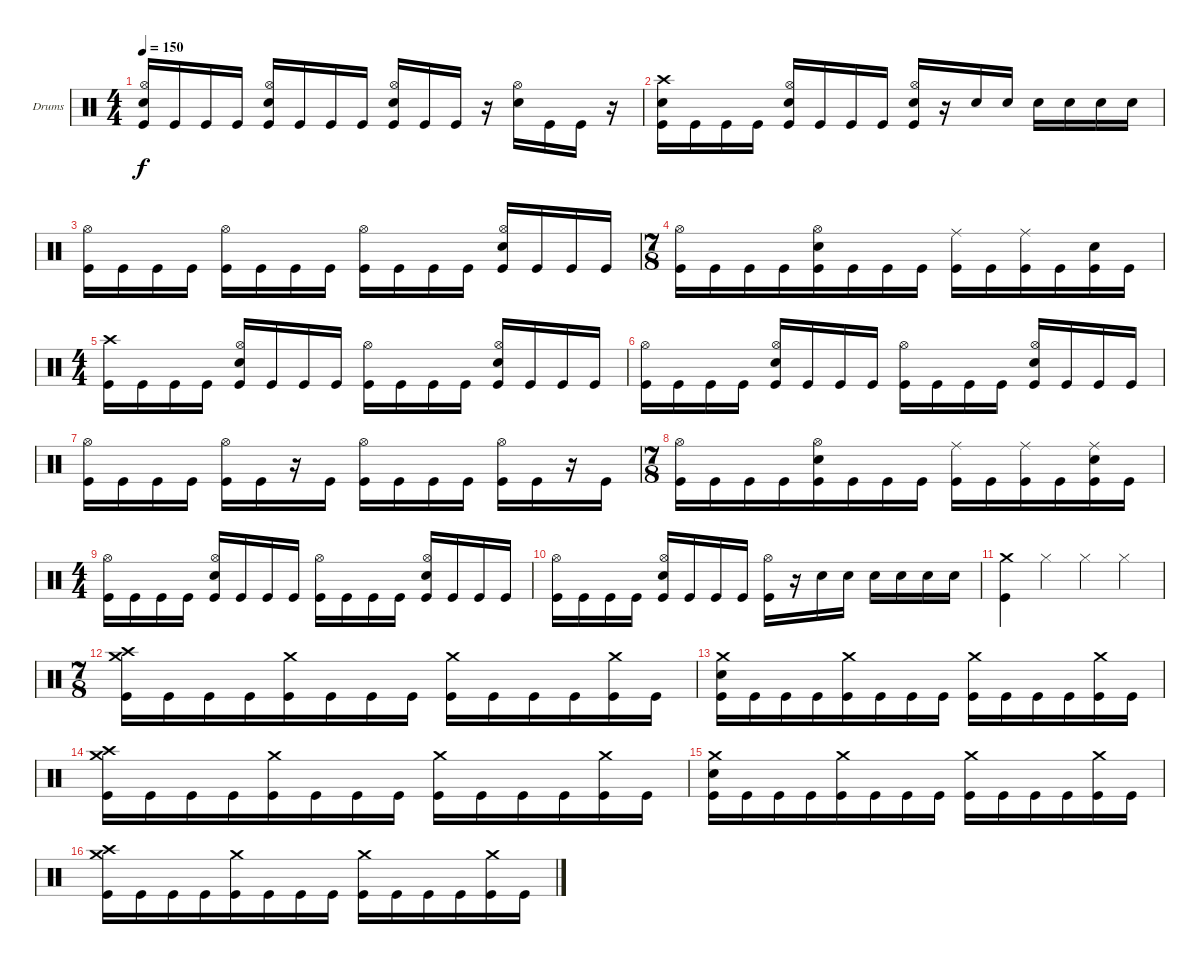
\defaultSystemsLayout 4
\bracketExtendMode groupsimilarinstruments
\firstSystemTrackNameOrientation horizontal
\otherSystemsTrackNameOrientation horizontal
\track ("Moe Carlson" "Drums") {instrument percussion}
\staff {score}
\articulation defaults
\ts (4 4)
\tempo 150
\clef neutral
\scale
0.474178
\ks c
("Kick (hit)" "Hi-Hat (open)" "Snare (hit) 2").16{dy f} "Kick (hit)".16 "Kick (hit)".16 "Kick (hit)".16 ("Kick (hit)" "Hi-Hat (open)" "Snare (hit) 2").16 "Kick (hit)".16 "Kick (hit)".16 "Kick (hit)".16 ("Kick (hit)" "Hi-Hat (open)" "Snare (hit) 2").16 "Kick (hit)".16 "Kick (hit)".16 r.16 ("Hi-Hat (open)" "Snare (hit) 2").16 "Kick (hit)".16 "Kick (hit)".16 r.16 |
\scale
0.262911 ("Kick (hit)" "Crash high (hit)" "Snare (hit) 2").16 "Kick (hit)".16 "Kick (hit)".16 "Kick (hit)".16 ("Kick (hit)" "Snare (hit) 2" "Hi-Hat (open)").16 "Kick (hit)".16 "Kick (hit)".16 "Kick (hit)".16 ("Kick (hit)" "Hi-Hat (open)" "Snare (hit) 2").16 r.16 "Snare (hit) 2".16 "Snare (hit) 2".16 "Snare (hit) 2".16 "Snare (hit) 2".16 "Snare (hit) 2".16 "Snare (hit) 2".16 |
\scale
0.262911 ("Kick (hit)" "Hi-Hat (open)").16 "Kick (hit)".16 "Kick (hit)".16 "Kick (hit)".16 ("Kick (hit)" "Hi-Hat (open)").16 "Kick (hit)".16 "Kick (hit)".16 "Kick (hit)".16 ("Kick (hit)" "Hi-Hat (open)").16 "Kick (hit)".16 "Kick (hit)".16 "Kick (hit)".16 ("Kick (hit)" "Hi-Hat (open)" "Snare (hit) 2").16 "Kick (hit)".16 "Kick (hit)".16 "Kick (hit)".16 |
\ts (7 8)
("Kick (hit)" "Hi-Hat (open)").16 "Kick (hit)".16 "Kick (hit)".16 "Kick (hit)".16 ("Kick (hit)" "Hi-Hat (open)" "Snare (hit) 2").16 "Kick (hit)".16 "Kick (hit)".16 "Kick (hit)".16 ("Kick (hit)" "Ride (middle)").16 "Kick (hit)".16 ("Kick (hit)" "Ride (middle)").16 "Kick (hit)".16 ("Kick (hit)" "Snare (hit) 2").16 "Kick (hit)".16 |
\ts (4 4)
("Kick (hit)" "Crash high (hit)").16 "Kick (hit)".16 "Kick (hit)".16 "Kick (hit)".16 ("Kick (hit)" "Hi-Hat (open)" "Snare (hit) 2").16 "Kick (hit)".16 "Kick (hit)".16 "Kick (hit)".16 ("Kick (hit)" "Hi-Hat (open)").16 "Kick (hit)".16 "Kick (hit)".16 "Kick (hit)".16 ("Kick (hit)" "Hi-Hat (open)" "Snare (hit) 2").16 "Kick (hit)".16 "Kick (hit)".16 "Kick (hit)".16 |
("Kick (hit)" "Hi-Hat (open)").16 "Kick (hit)".16 "Kick (hit)".16 "Kick (hit)".16 ("Kick (hit)" "Hi-Hat (open)" "Snare (hit) 2").16 "Kick (hit)".16 "Kick (hit)".16 "Kick (hit)".16 ("Kick (hit)" "Hi-Hat (open)").16 "Kick (hit)".16 "Kick (hit)".16 "Kick (hit)".16 ("Kick (hit)" "Hi-Hat (open)" "Snare (hit) 2").16 "Kick (hit)".16 "Kick (hit)".16 "Kick (hit)".16 |
("Kick (hit)" "Hi-Hat (open)").16 "Kick (hit)".16 "Kick (hit)".16 "Kick (hit)".16 ("Kick (hit)" "Hi-Hat (open)").16 "Kick (hit)".16 r.16 "Kick (hit)".16 ("Kick (hit)" "Hi-Hat (open)").16 "Kick (hit)".16 "Kick (hit)".16 "Kick (hit)".16 ("Kick (hit)" "Hi-Hat (open)").16 "Kick (hit)".16 r.16 "Kick (hit)".16 |
\ts (7 8)
("Kick (hit)" "Hi-Hat (open)").16 "Kick (hit)".16 "Kick (hit)".16 "Kick (hit)".16 ("Kick (hit)" "Hi-Hat (open)" "Snare (hit) 2").16 "Kick (hit)".16 "Kick (hit)".16 "Kick (hit)".16 ("Kick (hit)" "Ride (middle)").16 "Kick (hit)".16 ("Kick (hit)" "Ride (middle)").16 "Kick (hit)".16 ("Kick (hit)" "Ride (middle)" "Snare (hit) 2").16 "Kick (hit)".16 |
\ts (4 4)
("Kick (hit)" "Hi-Hat (open)").16 "Kick (hit)".16 "Kick (hit)".16 "Kick (hit)".16 ("Kick (hit)" "Hi-Hat (open)" "Snare (hit) 2").16 "Kick (hit)".16 "Kick (hit)".16 "Kick (hit)".16 ("Kick (hit)" "Hi-Hat (open)").16 "Kick (hit)".16 "Kick (hit)".16 "Kick (hit)".16 ("Kick (hit)" "Hi-Hat (open)" "Snare (hit) 2").16 "Kick (hit)".16 "Kick (hit)".16 "Kick (hit)".16 |
("Kick (hit)" "Hi-Hat (open)").16 "Kick (hit)".16 "Kick (hit)".16 "Kick (hit)".16 ("Kick (hit)" "Hi-Hat (open)" "Snare (hit) 2").16 "Kick (hit)".16 "Kick (hit)".16 "Kick (hit)".16 ("Kick (hit)" "Hi-Hat (open)").16 r.16 "Snare (hit) 2".16 "Snare (hit) 2".16 "Snare (hit) 2".16 "Snare (hit) 2".16 "Snare (hit) 2".16 "Snare (hit) 2".16 |
("Crash medium (hit)" "Kick (hit)").4 "Hi-Hat (closed)".4 "Hi-Hat (closed)".4 "Hi-Hat (closed)".4 |
\ts (7 8)
("Crash medium (hit)" "Crash high (hit)" "Kick (hit)").16 "Kick (hit)".16 "Kick (hit)".16 "Kick (hit)".16 ("Kick (hit)" "Crash medium (hit)").16 "Kick (hit)".16 "Kick (hit)".16 "Kick (hit)".16 ("Kick (hit)" "Crash medium (hit)").16 "Kick (hit)".16 "Kick (hit)".16 "Kick (hit)".16 ("Kick (hit)" "Crash medium (hit)").16 "Kick (hit)".16 |
("Kick (hit)" "Crash medium (hit)" "Snare (hit) 2").16 "Kick (hit)".16 "Kick (hit)".16 "Kick (hit)".16 ("Kick (hit)" "Crash medium (hit)").16 "Kick (hit)".16 "Kick (hit)".16 "Kick (hit)".16 ("Kick (hit)" "Crash medium (hit)").16 "Kick (hit)".16 "Kick (hit)".16 "Kick (hit)".16 ("Kick (hit)" "Crash medium (hit)").16 "Kick (hit)".16 |
("Crash medium (hit)" "Crash high (hit)" "Kick (hit)").16 "Kick (hit)".16 "Kick (hit)".16 "Kick (hit)".16 ("Kick (hit)" "Crash medium (hit)").16 "Kick (hit)".16 "Kick (hit)".16 "Kick (hit)".16 ("Kick (hit)" "Crash medium (hit)").16 "Kick (hit)".16 "Kick (hit)".16 "Kick (hit)".16 ("Kick (hit)" "Crash medium (hit)").16 "Kick (hit)".16 |
("Kick (hit)" "Crash medium (hit)" "Snare (hit) 2").16 "Kick (hit)".16 "Kick (hit)".16 "Kick (hit)".16 ("Kick (hit)" "Crash medium (hit)").16 "Kick (hit)".16 "Kick (hit)".16 "Kick (hit)".16 ("Kick (hit)" "Crash medium (hit)").16 "Kick (hit)".16 "Kick (hit)".16 "Kick (hit)".16 ("Kick (hit)" "Crash medium (hit)").16 "Kick (hit)".16 |
("Crash medium (hit)" "Crash high (hit)" "Kick (hit)").16 "Kick (hit)".16 "Kick (hit)".16 "Kick (hit)".16 ("Kick (hit)" "Crash medium (hit)").16 "Kick (hit)".16 "Kick (hit)".16 "Kick (hit)".16 ("Kick (hit)" "Crash medium (hit)").16 "Kick (hit)".16 "Kick (hit)".16 "Kick (hit)".16 ("Kick (hit)" "Crash medium (hit)").16 "Kick (hit)".16
